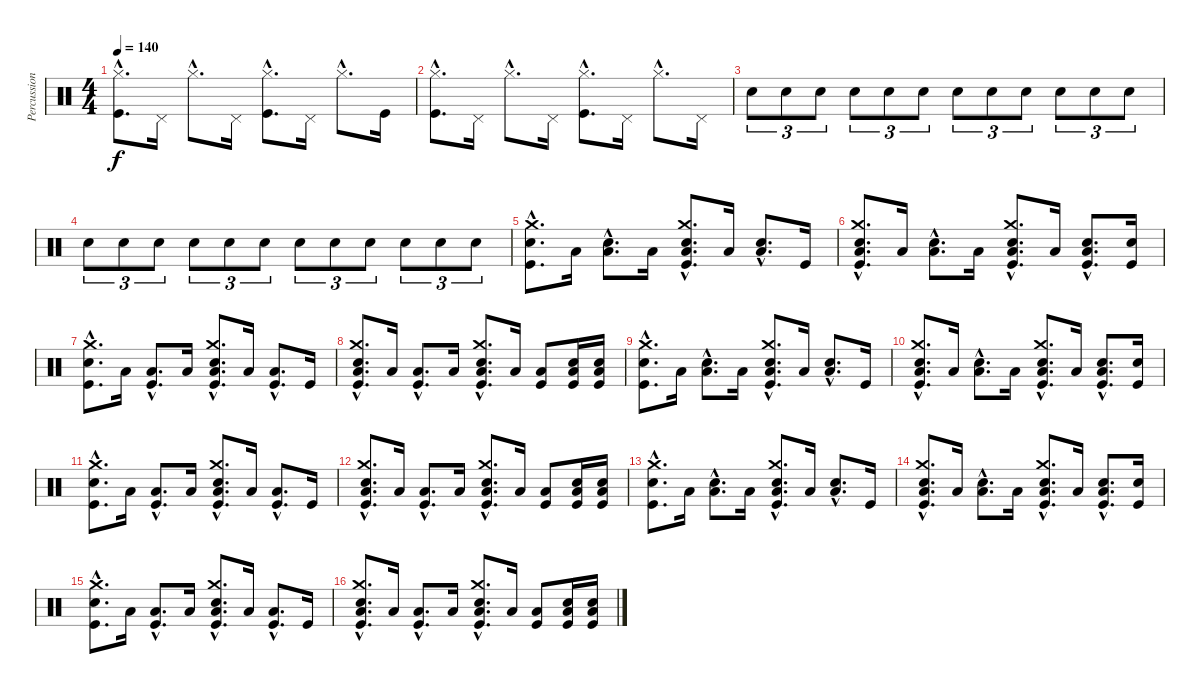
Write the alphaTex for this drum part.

\track ("Percussions" "Percussion") {instrument percussion}
\staff {score}
\articulation defaults
\ts (4 4)
\tempo 140
\clef neutral
\ks c
("Hi-Hat (closed)"{hac} "Kick (hit)"{hac}).8{d dy f} "Pedal Hi-Hat (hit)".16 "Hi-Hat (closed)"{hac}.8{d} "Pedal Hi-Hat (hit)".16 ("Hi-Hat (closed)"{hac} "Kick (hit)"{hac}).8{d} "Pedal Hi-Hat (hit)".16 "Hi-Hat (closed)"{hac}.8{d} "Kick (hit)".16 |
("Hi-Hat (closed)"{hac} "Kick (hit)"{hac}).8{d} "Pedal Hi-Hat (hit)".16 "Hi-Hat (closed)"{hac}.8{d} "Pedal Hi-Hat (hit)".16 ("Hi-Hat (closed)"{hac} "Kick (hit)"{hac}).8{d} "Pedal Hi-Hat (hit)".16 "Hi-Hat (closed)"{hac}.8{d} "Pedal Hi-Hat (hit)".16 |
"Electric Snare (hit)".8{tu (3 2) volume 3} "Electric Snare (hit)".8{tu (3 2)} "Electric Snare (hit)".8{tu (3 2)} "Electric Snare (hit)".8{tu (3 2) volume 5} "Electric Snare (hit)".8{tu (3 2)} "Electric Snare (hit)".8{tu (3 2)} "Electric Snare (hit)".8{tu (3 2) volume 7} "Electric Snare (hit)".8{tu (3 2)} "Electric Snare (hit)".8{tu (3 2)} "Electric Snare (hit)".8{tu (3 2) volume 9} "Electric Snare (hit)".8{tu (3 2)} "Electric Snare (hit)".8{tu (3 2)} |
"Electric Snare (hit)".8{tu (3 2) volume 10} "Electric Snare (hit)".8{tu (3 2)} "Electric Snare (hit)".8{tu (3 2)} "Electric Snare (hit)".8{tu (3 2)} "Electric Snare (hit)".8{tu (3 2)} "Electric Snare (hit)".8{tu (3 2)} "Electric Snare (hit)".8{tu (3 2)} "Electric Snare (hit)".8{tu (3 2)} "Electric Snare (hit)".8{tu (3 2)} "Electric Snare (hit)".8{tu (3 2)} "Electric Snare (hit)".8{tu (3 2)} "Electric Snare (hit)".8{tu (3 2)} |
("Crash medium (hit)"{hac} "Electric Snare (hit)"{hac} "Kick (hit)"{hac}).8{d} "Low Tom (hit)".16 ("Electric Snare (hit)"{hac} "Low Tom (hit)"{hac}).8{d} "Low Tom (hit)".16 ("Crash medium (hit)"{hac} "Electric Snare (hit)"{hac} "Low Tom (hit)"{hac} "Kick (hit)"{hac}).8{d} "Low Tom (hit)".16 ("Electric Snare (hit)"{hac} "Low Tom (hit)"{hac}).8{d} "Kick (hit)".16 |
("Crash medium (hit)"{hac} "Electric Snare (hit)"{hac} "Low Tom (hit)"{hac} "Kick (hit)"{hac}).8{d} "Low Tom (hit)".16 ("Electric Snare (hit)"{hac} "Low Tom (hit)"{hac}).8{d} "Low Tom (hit)".16 ("Crash medium (hit)"{hac} "Electric Snare (hit)"{hac} "Low Tom (hit)"{hac} "Kick (hit)"{hac}).8{d} "Low Tom (hit)".16 ("Electric Snare (hit)"{hac} "Low Tom (hit)"{hac} "Kick (hit)"{hac}).8{d} ("Electric Snare (hit)" "Kick (hit)").16 |
("Crash medium (hit)"{hac} "Electric Snare (hit)"{hac} "Kick (hit)"{hac}).8{d} "Low Tom (hit)".16 ("Kick (hit)"{hac} "Low Tom (hit)"{hac}).8{d} "Low Tom (hit)".16 ("Crash medium (hit)"{hac} "Electric Snare (hit)"{hac} "Low Tom (hit)"{hac} "Kick (hit)"{hac}).8{d} "Low Tom (hit)".16 ("Kick (hit)"{hac} "Low Tom (hit)"{hac}).8{d} "Kick (hit)".16 |
("Crash medium (hit)"{hac} "Electric Snare (hit)"{hac} "Low Tom (hit)"{hac} "Kick (hit)"{hac}).8{d} "Low Tom (hit)".16 ("Kick (hit)"{hac} "Low Tom (hit)"{hac}).8{d} "Low Tom (hit)".16 ("Crash medium (hit)"{hac} "Electric Snare (hit)"{hac} "Low Tom (hit)"{hac} "Kick (hit)"{hac}).8{d} "Low Tom (hit)".16 ("Kick (hit)" "Low Tom (hit)").8 ("Electric Snare (hit)" "Low Tom (hit)" "Kick (hit)").16 ("Electric Snare (hit)" "Low Tom (hit)" "Kick (hit)").16 |
("Crash medium (hit)"{hac} "Electric Snare (hit)"{hac} "Kick (hit)"{hac}).8{d} "Low Tom (hit)".16 ("Electric Snare (hit)"{hac} "Low Tom (hit)"{hac}).8{d} "Low Tom (hit)".16 ("Crash medium (hit)"{hac} "Electric Snare (hit)"{hac} "Low Tom (hit)"{hac} "Kick (hit)"{hac}).8{d} "Low Tom (hit)".16 ("Electric Snare (hit)"{hac} "Low Tom (hit)"{hac}).8{d} "Kick (hit)".16 |
("Crash medium (hit)"{hac} "Electric Snare (hit)"{hac} "Low Tom (hit)"{hac} "Kick (hit)"{hac}).8{d} "Low Tom (hit)".16 ("Electric Snare (hit)"{hac} "Low Tom (hit)"{hac}).8{d} "Low Tom (hit)".16 ("Crash medium (hit)"{hac} "Electric Snare (hit)"{hac} "Low Tom (hit)"{hac} "Kick (hit)"{hac}).8{d} "Low Tom (hit)".16 ("Electric Snare (hit)"{hac} "Low Tom (hit)"{hac} "Kick (hit)"{hac}).8{d} ("Electric Snare (hit)" "Kick (hit)").16 |
("Crash medium (hit)"{hac} "Electric Snare (hit)"{hac} "Kick (hit)"{hac}).8{d} "Low Tom (hit)".16 ("Kick (hit)"{hac} "Low Tom (hit)"{hac}).8{d} "Low Tom (hit)".16 ("Crash medium (hit)"{hac} "Electric Snare (hit)"{hac} "Low Tom (hit)"{hac} "Kick (hit)"{hac}).8{d} "Low Tom (hit)".16 ("Kick (hit)"{hac} "Low Tom (hit)"{hac}).8{d} "Kick (hit)".16 |
("Crash medium (hit)"{hac} "Electric Snare (hit)"{hac} "Low Tom (hit)"{hac} "Kick (hit)"{hac}).8{d} "Low Tom (hit)".16 ("Kick (hit)"{hac} "Low Tom (hit)"{hac}).8{d} "Low Tom (hit)".16 ("Crash medium (hit)"{hac} "Electric Snare (hit)"{hac} "Low Tom (hit)"{hac} "Kick (hit)"{hac}).8{d} "Low Tom (hit)".16 ("Kick (hit)" "Low Tom (hit)").8 ("Electric Snare (hit)" "Low Tom (hit)" "Kick (hit)").16 ("Electric Snare (hit)" "Low Tom (hit)" "Kick (hit)").16 |
("Crash medium (hit)"{hac} "Electric Snare (hit)"{hac} "Kick (hit)"{hac}).8{d} "Low Tom (hit)".16 ("Electric Snare (hit)"{hac} "Low Tom (hit)"{hac}).8{d} "Low Tom (hit)".16 ("Crash medium (hit)"{hac} "Electric Snare (hit)"{hac} "Low Tom (hit)"{hac} "Kick (hit)"{hac}).8{d} "Low Tom (hit)".16 ("Electric Snare (hit)"{hac} "Low Tom (hit)"{hac}).8{d} "Kick (hit)".16 |
("Crash medium (hit)"{hac} "Electric Snare (hit)"{hac} "Low Tom (hit)"{hac} "Kick (hit)"{hac}).8{d} "Low Tom (hit)".16 ("Electric Snare (hit)"{hac} "Low Tom (hit)"{hac}).8{d} "Low Tom (hit)".16 ("Crash medium (hit)"{hac} "Electric Snare (hit)"{hac} "Low Tom (hit)"{hac} "Kick (hit)"{hac}).8{d} "Low Tom (hit)".16 ("Electric Snare (hit)"{hac} "Low Tom (hit)"{hac} "Kick (hit)"{hac}).8{d} ("Electric Snare (hit)" "Kick (hit)").16 |
("Crash medium (hit)"{hac} "Electric Snare (hit)"{hac} "Kick (hit)"{hac}).8{d} "Low Tom (hit)".16 ("Kick (hit)"{hac} "Low Tom (hit)"{hac}).8{d} "Low Tom (hit)".16 ("Crash medium (hit)"{hac} "Electric Snare (hit)"{hac} "Low Tom (hit)"{hac} "Kick (hit)"{hac}).8{d} "Low Tom (hit)".16 ("Kick (hit)"{hac} "Low Tom (hit)"{hac}).8{d} "Kick (hit)".16 |
("Crash medium (hit)"{hac} "Electric Snare (hit)"{hac} "Low Tom (hit)"{hac} "Kick (hit)"{hac}).8{d} "Low Tom (hit)".16 ("Kick (hit)"{hac} "Low Tom (hit)"{hac}).8{d} "Low Tom (hit)".16 ("Crash medium (hit)"{hac} "Electric Snare (hit)"{hac} "Low Tom (hit)"{hac} "Kick (hit)"{hac}).8{d} "Low Tom (hit)".16 ("Kick (hit)" "Low Tom (hit)").8 ("Electric Snare (hit)" "Low Tom (hit)" "Kick (hit)").16 ("Electric Snare (hit)" "Low Tom (hit)" "Kick (hit)").16
